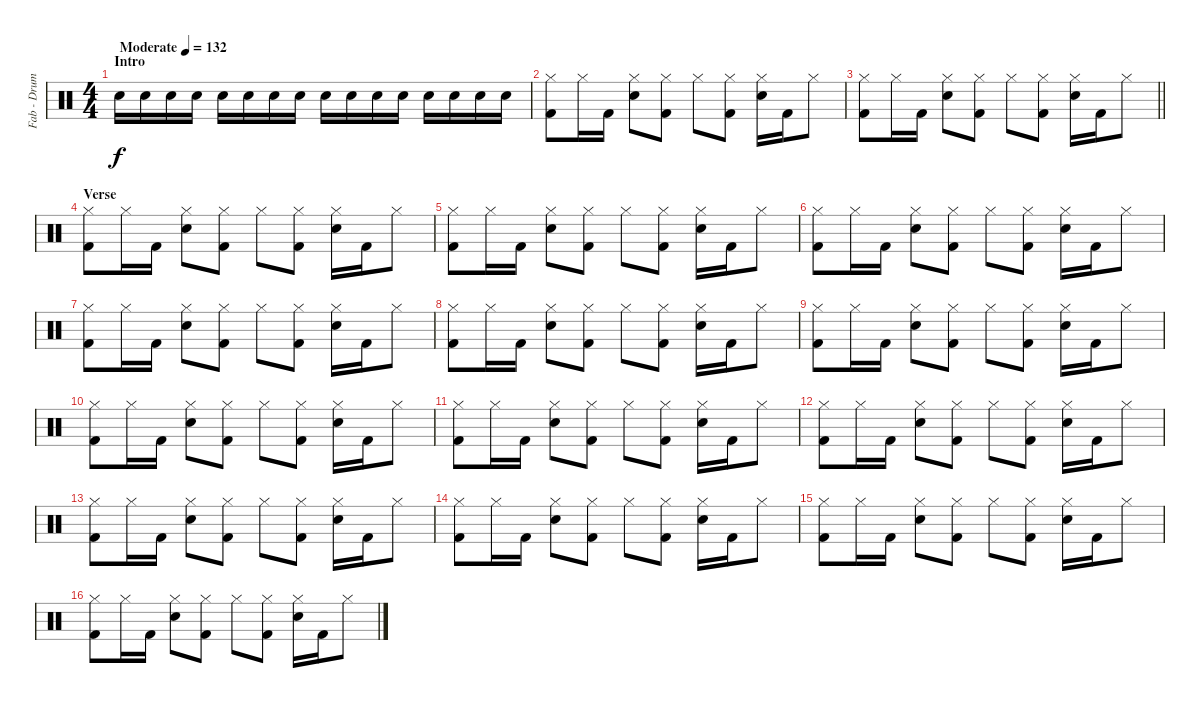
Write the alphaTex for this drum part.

\track ("Fab - Drums MIDI" "Fab - Drum") {instrument percussion}
\staff {score}
\articulation defaults
\ts (4 4)
\section ("" "Intro")
\tempo (132 "Moderate")
\clef neutral
\ks c "Snare (hit) 2".16{dy f volume 7} "Snare (hit) 2".16{volume 13} "Snare (hit) 2".16 "Snare (hit) 2".16 "Snare (hit) 2".16 "Snare (hit) 2".16 "Snare (hit) 2".16 "Snare (hit) 2".16 "Snare (hit) 2".16 "Snare (hit) 2".16 "Snare (hit) 2".16 "Snare (hit) 2".16 "Snare (hit) 2".16 "Snare (hit) 2".16 "Snare (hit) 2".16 "Snare (hit) 2".16
|
("Hi-Hat (closed)" "Kick (hit) 2").8 "Hi-Hat (closed)".16 "Kick (hit) 2".16 ("Hi-Hat (closed)" "Snare (hit) 2").8 ("Hi-Hat (closed)" "Kick (hit) 2").8 "Hi-Hat (closed)".8 ("Hi-Hat (closed)" "Kick (hit) 2").8 ("Hi-Hat (closed)" "Snare (hit) 2").16 "Kick (hit) 2".16 "Hi-Hat (closed)".8 |
\barLineRight lightlight
("Hi-Hat (closed)" "Kick (hit) 2").8 "Hi-Hat (closed)".16 "Kick (hit) 2".16 ("Hi-Hat (closed)" "Snare (hit) 2").8 ("Hi-Hat (closed)" "Kick (hit) 2").8 "Hi-Hat (closed)".8 ("Hi-Hat (closed)" "Kick (hit) 2").8 ("Hi-Hat (closed)" "Snare (hit) 2").16 "Kick (hit) 2".16 "Hi-Hat (closed)".8 |
\section ("" "Verse")
("Hi-Hat (closed)" "Kick (hit) 2").8 "Hi-Hat (closed)".16 "Kick (hit) 2".16 ("Hi-Hat (closed)" "Snare (hit) 2").8 ("Hi-Hat (closed)" "Kick (hit) 2").8 "Hi-Hat (closed)".8 ("Hi-Hat (closed)" "Kick (hit) 2").8 ("Hi-Hat (closed)" "Snare (hit) 2").16 "Kick (hit) 2".16 "Hi-Hat (closed)".8 |
("Hi-Hat (closed)" "Kick (hit) 2").8 "Hi-Hat (closed)".16 "Kick (hit) 2".16 ("Hi-Hat (closed)" "Snare (hit) 2").8 ("Hi-Hat (closed)" "Kick (hit) 2").8 "Hi-Hat (closed)".8 ("Hi-Hat (closed)" "Kick (hit) 2").8 ("Hi-Hat (closed)" "Snare (hit) 2").16 "Kick (hit) 2".16 "Hi-Hat (closed)".8 |
("Hi-Hat (closed)" "Kick (hit) 2").8 "Hi-Hat (closed)".16 "Kick (hit) 2".16 ("Hi-Hat (closed)" "Snare (hit) 2").8 ("Hi-Hat (closed)" "Kick (hit) 2").8 "Hi-Hat (closed)".8 ("Hi-Hat (closed)" "Kick (hit) 2").8 ("Hi-Hat (closed)" "Snare (hit) 2").16 "Kick (hit) 2".16 "Hi-Hat (closed)".8 |
("Hi-Hat (closed)" "Kick (hit) 2").8 "Hi-Hat (closed)".16 "Kick (hit) 2".16 ("Hi-Hat (closed)" "Snare (hit) 2").8 ("Hi-Hat (closed)" "Kick (hit) 2").8 "Hi-Hat (closed)".8 ("Hi-Hat (closed)" "Kick (hit) 2").8 ("Hi-Hat (closed)" "Snare (hit) 2").16 "Kick (hit) 2".16 "Hi-Hat (closed)".8 |
("Hi-Hat (closed)" "Kick (hit) 2").8 "Hi-Hat (closed)".16 "Kick (hit) 2".16 ("Hi-Hat (closed)" "Snare (hit) 2").8 ("Hi-Hat (closed)" "Kick (hit) 2").8 "Hi-Hat (closed)".8 ("Hi-Hat (closed)" "Kick (hit) 2").8 ("Hi-Hat (closed)" "Snare (hit) 2").16 "Kick (hit) 2".16 "Hi-Hat (closed)".8 |
("Hi-Hat (closed)" "Kick (hit) 2").8 "Hi-Hat (closed)".16 "Kick (hit) 2".16 ("Hi-Hat (closed)" "Snare (hit) 2").8 ("Hi-Hat (closed)" "Kick (hit) 2").8 "Hi-Hat (closed)".8 ("Hi-Hat (closed)" "Kick (hit) 2").8 ("Hi-Hat (closed)" "Snare (hit) 2").16 "Kick (hit) 2".16 "Hi-Hat (closed)".8 |
("Hi-Hat (closed)" "Kick (hit) 2").8 "Hi-Hat (closed)".16 "Kick (hit) 2".16 ("Hi-Hat (closed)" "Snare (hit) 2").8 ("Hi-Hat (closed)" "Kick (hit) 2").8 "Hi-Hat (closed)".8 ("Hi-Hat (closed)" "Kick (hit) 2").8 ("Hi-Hat (closed)" "Snare (hit) 2").16 "Kick (hit) 2".16 "Hi-Hat (closed)".8 |
("Hi-Hat (closed)" "Kick (hit) 2").8 "Hi-Hat (closed)".16 "Kick (hit) 2".16 ("Hi-Hat (closed)" "Snare (hit) 2").8 ("Hi-Hat (closed)" "Kick (hit) 2").8 "Hi-Hat (closed)".8 ("Hi-Hat (closed)" "Kick (hit) 2").8 ("Hi-Hat (closed)" "Snare (hit) 2").16 "Kick (hit) 2".16 "Hi-Hat (closed)".8 |
("Hi-Hat (closed)" "Kick (hit) 2").8 "Hi-Hat (closed)".16 "Kick (hit) 2".16 ("Hi-Hat (closed)" "Snare (hit) 2").8 ("Hi-Hat (closed)" "Kick (hit) 2").8 "Hi-Hat (closed)".8 ("Hi-Hat (closed)" "Kick (hit) 2").8 ("Hi-Hat (closed)" "Snare (hit) 2").16 "Kick (hit) 2".16 "Hi-Hat (closed)".8 |
("Hi-Hat (closed)" "Kick (hit) 2").8 "Hi-Hat (closed)".16 "Kick (hit) 2".16 ("Hi-Hat (closed)" "Snare (hit) 2").8 ("Hi-Hat (closed)" "Kick (hit) 2").8 "Hi-Hat (closed)".8 ("Hi-Hat (closed)" "Kick (hit) 2").8 ("Hi-Hat (closed)" "Snare (hit) 2").16 "Kick (hit) 2".16 "Hi-Hat (closed)".8 |
("Hi-Hat (closed)" "Kick (hit) 2").8 "Hi-Hat (closed)".16 "Kick (hit) 2".16 ("Hi-Hat (closed)" "Snare (hit) 2").8 ("Hi-Hat (closed)" "Kick (hit) 2").8 "Hi-Hat (closed)".8 ("Hi-Hat (closed)" "Kick (hit) 2").8 ("Hi-Hat (closed)" "Snare (hit) 2").16 "Kick (hit) 2".16 "Hi-Hat (closed)".8 |
("Hi-Hat (closed)" "Kick (hit) 2").8 "Hi-Hat (closed)".16 "Kick (hit) 2".16 ("Hi-Hat (closed)" "Snare (hit) 2").8 ("Hi-Hat (closed)" "Kick (hit) 2").8 "Hi-Hat (closed)".8 ("Hi-Hat (closed)" "Kick (hit) 2").8 ("Hi-Hat (closed)" "Snare (hit) 2").16 "Kick (hit) 2".16 "Hi-Hat (closed)".8 |
("Hi-Hat (closed)" "Kick (hit) 2").8 "Hi-Hat (closed)".16 "Kick (hit) 2".16 ("Hi-Hat (closed)" "Snare (hit) 2").8 ("Hi-Hat (closed)" "Kick (hit) 2").8 "Hi-Hat (closed)".8 ("Hi-Hat (closed)" "Kick (hit) 2").8 ("Hi-Hat (closed)" "Snare (hit) 2").16 "Kick (hit) 2".16 "Hi-Hat (closed)".8
